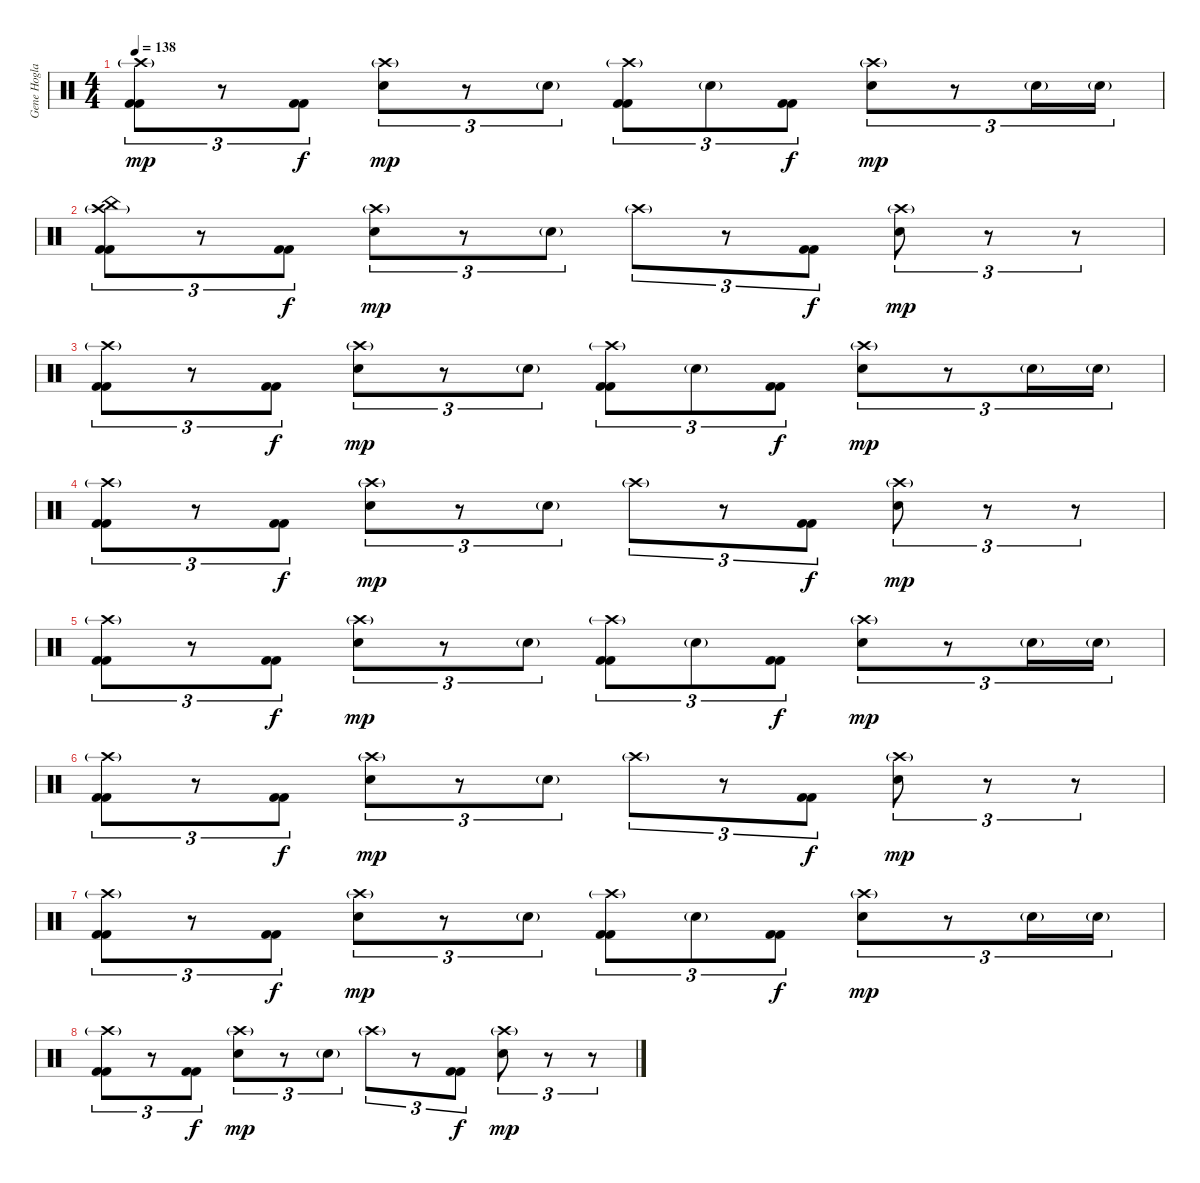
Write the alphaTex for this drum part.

\track ("Gene Hoglan" "Gene Hogla") {instrument percussion}
\staff {score}
\articulation defaults
\ts (4 4)
\tempo 138
\clef neutral
\ks c
("Crash high (hit)"{g} "Kick (hit) 2" "Kick (hit) 2").8{tu (3 2) dy mp} r.8{tu (3 2)} ("Kick (hit) 2" "Kick (hit) 2").8{tu (3 2) dy f} ("Crash high (hit)"{g} "Electric Snare (hit)").8{tu (3 2) dy mp} r.8{tu (3 2)} "Electric Snare (hit)"{g}.8{tu (3 2)} ("Crash high (hit)"{g} "Kick (hit) 2" "Kick (hit) 2").8{tu (3 2)} "Electric Snare (hit)"{g}.8{tu (3 2)} ("Kick (hit) 2" "Kick (hit) 2").8{tu (3 2) dy f} ("Crash high (hit)"{g} "Electric Snare (hit)").8{tu (3 2) dy mp} r.8{tu (3 2)} "Electric Snare (hit)"{g}.16{tu (3 2)} "Electric Snare (hit)"{g}.16{tu (3 2)} |
("China (hit)" "Crash high (hit)"{g} "Kick (hit) 2" "Kick (hit) 2").8{tu (3 2)} r.8{tu (3 2)} ("Kick (hit) 2" "Kick (hit) 2").8{tu (3 2) dy f} ("Crash high (hit)"{g} "Electric Snare (hit)").8{tu (3 2) dy mp} r.8{tu (3 2)} "Electric Snare (hit)"{g}.8{tu (3 2)} "Crash high (hit)"{g}.8{tu (3 2)} r.8{tu (3 2)} ("Kick (hit) 2" "Kick (hit) 2").8{tu (3 2) dy f} ("Crash high (hit)"{g} "Electric Snare (hit)").8{tu (3 2) dy mp} r.8{tu (3 2)} r.8{tu (3 2)} |
("Crash high (hit)"{g} "Kick (hit) 2" "Kick (hit) 2").8{tu (3 2)} r.8{tu (3 2)} ("Kick (hit) 2" "Kick (hit) 2").8{tu (3 2) dy f} ("Crash high (hit)"{g} "Electric Snare (hit)").8{tu (3 2) dy mp} r.8{tu (3 2)} "Electric Snare (hit)"{g}.8{tu (3 2)} ("Crash high (hit)"{g} "Kick (hit) 2" "Kick (hit) 2").8{tu (3 2)} "Electric Snare (hit)"{g}.8{tu (3 2)} ("Kick (hit) 2" "Kick (hit) 2").8{tu (3 2) dy f} ("Crash high (hit)"{g} "Electric Snare (hit)").8{tu (3 2) dy mp} r.8{tu (3 2)} "Electric Snare (hit)"{g}.16{tu (3 2)} "Electric Snare (hit)"{g}.16{tu (3 2)} |
("Crash high (hit)"{g} "Kick (hit) 2" "Kick (hit) 2").8{tu (3 2)} r.8{tu (3 2)} ("Kick (hit) 2" "Kick (hit) 2").8{tu (3 2) dy f} ("Crash high (hit)"{g} "Electric Snare (hit)").8{tu (3 2) dy mp} r.8{tu (3 2)} "Electric Snare (hit)"{g}.8{tu (3 2)} "Crash high (hit)"{g}.8{tu (3 2)} r.8{tu (3 2)} ("Kick (hit) 2" "Kick (hit) 2").8{tu (3 2) dy f} ("Crash high (hit)"{g} "Electric Snare (hit)").8{tu (3 2) dy mp} r.8{tu (3 2)} r.8{tu (3 2)} |
("Crash high (hit)"{g} "Kick (hit) 2" "Kick (hit) 2").8{tu (3 2)} r.8{tu (3 2)} ("Kick (hit) 2" "Kick (hit) 2").8{tu (3 2) dy f} ("Crash high (hit)"{g} "Electric Snare (hit)").8{tu (3 2) dy mp} r.8{tu (3 2)} "Electric Snare (hit)"{g}.8{tu (3 2)} ("Crash high (hit)"{g} "Kick (hit) 2" "Kick (hit) 2").8{tu (3 2)} "Electric Snare (hit)"{g}.8{tu (3 2)} ("Kick (hit) 2" "Kick (hit) 2").8{tu (3 2) dy f} ("Crash high (hit)"{g} "Electric Snare (hit)").8{tu (3 2) dy mp} r.8{tu (3 2)} "Electric Snare (hit)"{g}.16{tu (3 2)} "Electric Snare (hit)"{g}.16{tu (3 2)} |
("Crash high (hit)"{g} "Kick (hit) 2" "Kick (hit) 2").8{tu (3 2)} r.8{tu (3 2)} ("Kick (hit) 2" "Kick (hit) 2").8{tu (3 2) dy f} ("Crash high (hit)"{g} "Electric Snare (hit)").8{tu (3 2) dy mp} r.8{tu (3 2)} "Electric Snare (hit)"{g}.8{tu (3 2)} "Crash high (hit)"{g}.8{tu (3 2)} r.8{tu (3 2)} ("Kick (hit) 2" "Kick (hit) 2").8{tu (3 2) dy f} ("Crash high (hit)"{g} "Electric Snare (hit)").8{tu (3 2) dy mp} r.8{tu (3 2)} r.8{tu (3 2)} |
("Crash high (hit)"{g} "Kick (hit) 2" "Kick (hit) 2").8{tu (3 2)} r.8{tu (3 2)} ("Kick (hit) 2" "Kick (hit) 2").8{tu (3 2) dy f} ("Crash high (hit)"{g} "Electric Snare (hit)").8{tu (3 2) dy mp} r.8{tu (3 2)} "Electric Snare (hit)"{g}.8{tu (3 2)} ("Crash high (hit)"{g} "Kick (hit) 2" "Kick (hit) 2").8{tu (3 2)} "Electric Snare (hit)"{g}.8{tu (3 2)} ("Kick (hit) 2" "Kick (hit) 2").8{tu (3 2) dy f} ("Crash high (hit)"{g} "Electric Snare (hit)").8{tu (3 2) dy mp} r.8{tu (3 2)} "Electric Snare (hit)"{g}.16{tu (3 2)} "Electric Snare (hit)"{g}.16{tu (3 2)} |
("Crash high (hit)"{g} "Kick (hit) 2" "Kick (hit) 2").8{tu (3 2)} r.8{tu (3 2)} ("Kick (hit) 2" "Kick (hit) 2").8{tu (3 2) dy f} ("Crash high (hit)"{g} "Electric Snare (hit)").8{tu (3 2) dy mp} r.8{tu (3 2)} "Electric Snare (hit)"{g}.8{tu (3 2)} "Crash high (hit)"{g}.8{tu (3 2)} r.8{tu (3 2)} ("Kick (hit) 2" "Kick (hit) 2").8{tu (3 2) dy f} ("Crash high (hit)"{g} "Electric Snare (hit)").8{tu (3 2) dy mp} r.8{tu (3 2)} r.8{tu (3 2)}
